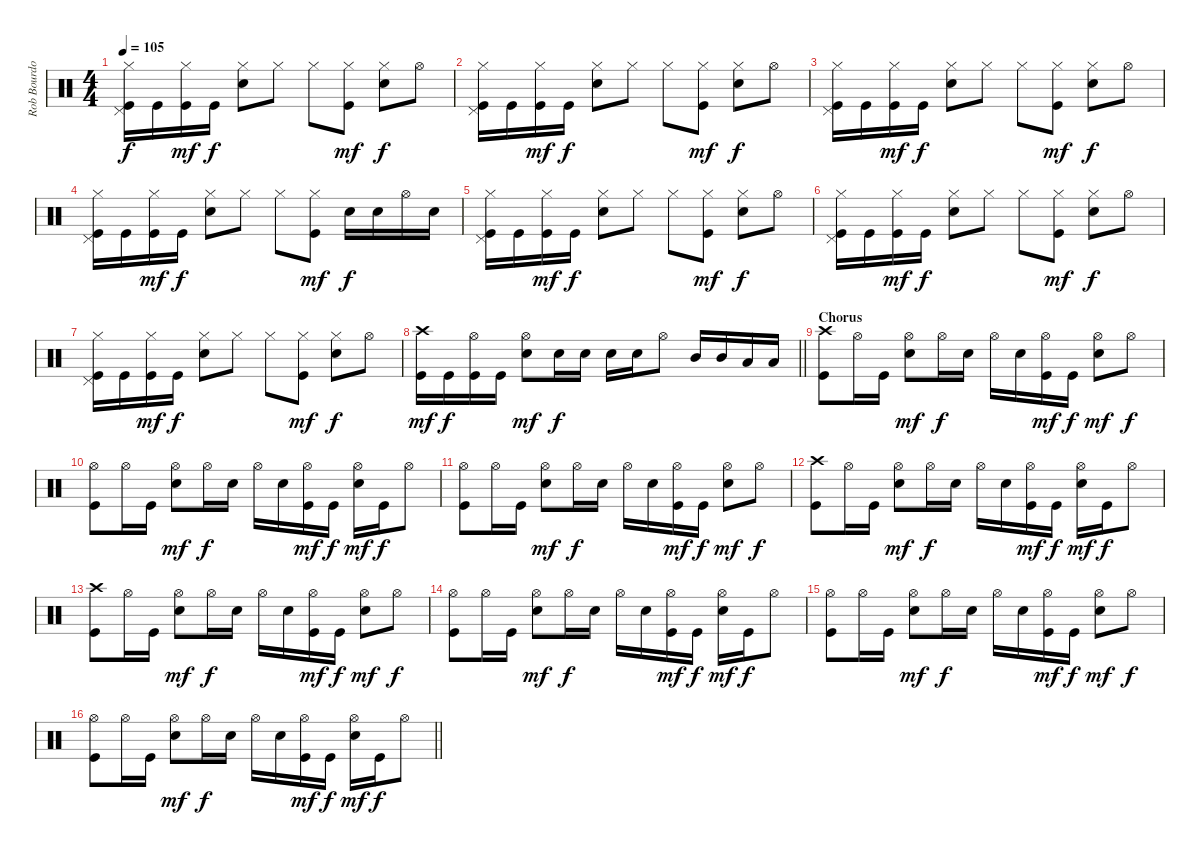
\track ("Rob Bourdon - Drums" "Rob Bourdo") {instrument percussion}
\staff {score}
\articulation defaults
\ts (4 4)
\tempo 105
\clef neutral
\ks c
("Hi-Hat (closed)" "Pedal Hi-Hat (hit)" "Kick (hit)").16{dy f} "Kick (hit)".16 ("Hi-Hat (closed)" "Kick (hit)").16{dy mf} "Kick (hit)".16{dy f} ("Hi-Hat (closed)" "Electric Snare (hit)").8 "Hi-Hat (closed)".8 "Hi-Hat (closed)".8 ("Hi-Hat (closed)" "Kick (hit)").8{dy mf} ("Hi-Hat (closed)" "Electric Snare (hit)").8{dy f} "Hi-Hat (open)".8 |
("Hi-Hat (closed)" "Pedal Hi-Hat (hit)" "Kick (hit)").16 "Kick (hit)".16 ("Hi-Hat (closed)" "Kick (hit)").16{dy mf} "Kick (hit)".16{dy f} ("Hi-Hat (closed)" "Electric Snare (hit)").8 "Hi-Hat (closed)".8 "Hi-Hat (closed)".8 ("Hi-Hat (closed)" "Kick (hit)").8{dy mf} ("Hi-Hat (closed)" "Electric Snare (hit)").8{dy f} "Hi-Hat (open)".8 |
("Hi-Hat (closed)" "Pedal Hi-Hat (hit)" "Kick (hit)").16 "Kick (hit)".16 ("Hi-Hat (closed)" "Kick (hit)").16{dy mf} "Kick (hit)".16{dy f} ("Hi-Hat (closed)" "Electric Snare (hit)").8 "Hi-Hat (closed)".8 "Hi-Hat (closed)".8 ("Hi-Hat (closed)" "Kick (hit)").8{dy mf} ("Hi-Hat (closed)" "Electric Snare (hit)").8{dy f} "Hi-Hat (open)".8 |
("Hi-Hat (closed)" "Pedal Hi-Hat (hit)" "Kick (hit)").16 "Kick (hit)".16 ("Hi-Hat (closed)" "Kick (hit)").16{dy mf} "Kick (hit)".16{dy f} ("Hi-Hat (closed)" "Electric Snare (hit)").8 "Hi-Hat (closed)".8 "Hi-Hat (closed)".8 ("Hi-Hat (closed)" "Kick (hit)").8{dy mf} "Electric Snare (hit)".16{dy f} "Electric Snare (hit)".16 "Hi-Hat (open)".16 "Electric Snare (hit)".16 |
("Hi-Hat (closed)" "Pedal Hi-Hat (hit)" "Kick (hit)").16 "Kick (hit)".16 ("Hi-Hat (closed)" "Kick (hit)").16{dy mf} "Kick (hit)".16{dy f} ("Hi-Hat (closed)" "Electric Snare (hit)").8 "Hi-Hat (closed)".8 "Hi-Hat (closed)".8 ("Hi-Hat (closed)" "Kick (hit)").8{dy mf} ("Hi-Hat (closed)" "Electric Snare (hit)").8{dy f} "Hi-Hat (open)".8 |
("Hi-Hat (closed)" "Pedal Hi-Hat (hit)" "Kick (hit)").16 "Kick (hit)".16 ("Hi-Hat (closed)" "Kick (hit)").16{dy mf} "Kick (hit)".16{dy f} ("Hi-Hat (closed)" "Electric Snare (hit)").8 "Hi-Hat (closed)".8 "Hi-Hat (closed)".8 ("Hi-Hat (closed)" "Kick (hit)").8{dy mf} ("Hi-Hat (closed)" "Electric Snare (hit)").8{dy f} "Hi-Hat (open)".8 |
("Hi-Hat (closed)" "Pedal Hi-Hat (hit)" "Kick (hit)").16 "Kick (hit)".16 ("Hi-Hat (closed)" "Kick (hit)").16{dy mf} "Kick (hit)".16{dy f} ("Hi-Hat (closed)" "Electric Snare (hit)").8 "Hi-Hat (closed)".8 "Hi-Hat (closed)".8 ("Hi-Hat (closed)" "Kick (hit)").8{dy mf} ("Hi-Hat (closed)" "Electric Snare (hit)").8{dy f} "Hi-Hat (open)".8 |
\barLineRight lightlight
("Crash high (hit)" "Kick (hit)").16{dy mf} "Kick (hit)".16{dy f} ("Hi-Hat (open)" "Kick (hit)").16 "Kick (hit)".16 ("Hi-Hat (open)" "Electric Snare (hit)").8{dy mf} "Electric Snare (hit)".16{dy f} "Electric Snare (hit)".16 "Electric Snare (hit)".16 "Electric Snare (hit)".16 "Hi-Hat (open)".8 "Mid Tom (hit)".16 "Mid Tom (hit)".16 "Low Tom (hit)".16 "Low Tom (hit)".16 |
\section ("" "Chorus")
("Crash high (hit)" "Kick (hit)").8 "Hi-Hat (open)".16 "Kick (hit)".16 ("Hi-Hat (open)" "Electric Snare (hit)").8{dy mf} "Hi-Hat (open)".16{dy f} "Electric Snare (hit)".16 "Hi-Hat (open)".16 "Electric Snare (hit)".16 ("Hi-Hat (open)" "Kick (hit)").16{dy mf} "Kick (hit)".16{dy f} ("Hi-Hat (open)" "Electric Snare (hit)").8{dy mf} "Hi-Hat (open)".8{dy f} |
("Hi-Hat (open)" "Kick (hit)").8 "Hi-Hat (open)".16 "Kick (hit)".16 ("Hi-Hat (open)" "Electric Snare (hit)").8{dy mf} "Hi-Hat (open)".16{dy f} "Electric Snare (hit)".16 "Hi-Hat (open)".16 "Electric Snare (hit)".16 ("Hi-Hat (open)" "Kick (hit)").16{dy mf} "Kick (hit)".16{dy f} ("Hi-Hat (open)" "Electric Snare (hit)").16{dy mf} "Kick (hit)".16{dy f} "Hi-Hat (open)".8 |
("Hi-Hat (open)" "Kick (hit)").8 "Hi-Hat (open)".16 "Kick (hit)".16 ("Hi-Hat (open)" "Electric Snare (hit)").8{dy mf} "Hi-Hat (open)".16{dy f} "Electric Snare (hit)".16 "Hi-Hat (open)".16 "Electric Snare (hit)".16 ("Hi-Hat (open)" "Kick (hit)").16{dy mf} "Kick (hit)".16{dy f} ("Hi-Hat (open)" "Electric Snare (hit)").8{dy mf} "Hi-Hat (open)".8{dy f} |
("Crash high (hit)" "Kick (hit)").8 "Hi-Hat (open)".16 "Kick (hit)".16 ("Hi-Hat (open)" "Electric Snare (hit)").8{dy mf} "Hi-Hat (open)".16{dy f} "Electric Snare (hit)".16 "Hi-Hat (open)".16 "Electric Snare (hit)".16 ("Hi-Hat (open)" "Kick (hit)").16{dy mf} "Kick (hit)".16{dy f} ("Hi-Hat (open)" "Electric Snare (hit)").16{dy mf} "Kick (hit)".16{dy f} "Hi-Hat (open)".8 |
("Crash high (hit)" "Kick (hit)").8 "Hi-Hat (open)".16 "Kick (hit)".16 ("Hi-Hat (open)" "Electric Snare (hit)").8{dy mf} "Hi-Hat (open)".16{dy f} "Electric Snare (hit)".16 "Hi-Hat (open)".16 "Electric Snare (hit)".16 ("Hi-Hat (open)" "Kick (hit)").16{dy mf} "Kick (hit)".16{dy f} ("Hi-Hat (open)" "Electric Snare (hit)").8{dy mf} "Hi-Hat (open)".8{dy f} |
("Hi-Hat (open)" "Kick (hit)").8 "Hi-Hat (open)".16 "Kick (hit)".16 ("Hi-Hat (open)" "Electric Snare (hit)").8{dy mf} "Hi-Hat (open)".16{dy f} "Electric Snare (hit)".16 "Hi-Hat (open)".16 "Electric Snare (hit)".16 ("Hi-Hat (open)" "Kick (hit)").16{dy mf} "Kick (hit)".16{dy f} ("Hi-Hat (open)" "Electric Snare (hit)").16{dy mf} "Kick (hit)".16{dy f} "Hi-Hat (open)".8 |
("Hi-Hat (open)" "Kick (hit)").8 "Hi-Hat (open)".16 "Kick (hit)".16 ("Hi-Hat (open)" "Electric Snare (hit)").8{dy mf} "Hi-Hat (open)".16{dy f} "Electric Snare (hit)".16 "Hi-Hat (open)".16 "Electric Snare (hit)".16 ("Hi-Hat (open)" "Kick (hit)").16{dy mf} "Kick (hit)".16{dy f} ("Hi-Hat (open)" "Electric Snare (hit)").8{dy mf} "Hi-Hat (open)".8{dy f} |
\barLineRight lightlight
("Hi-Hat (open)" "Kick (hit)").8 "Hi-Hat (open)".16 "Kick (hit)".16 ("Hi-Hat (open)" "Electric Snare (hit)").8{dy mf} "Hi-Hat (open)".16{dy f} "Electric Snare (hit)".16 "Hi-Hat (open)".16 "Electric Snare (hit)".16 ("Hi-Hat (open)" "Kick (hit)").16{dy mf} "Kick (hit)".16{dy f} ("Hi-Hat (open)" "Electric Snare (hit)").16{dy mf} "Kick (hit)".16{dy f} "Hi-Hat (open)".8
